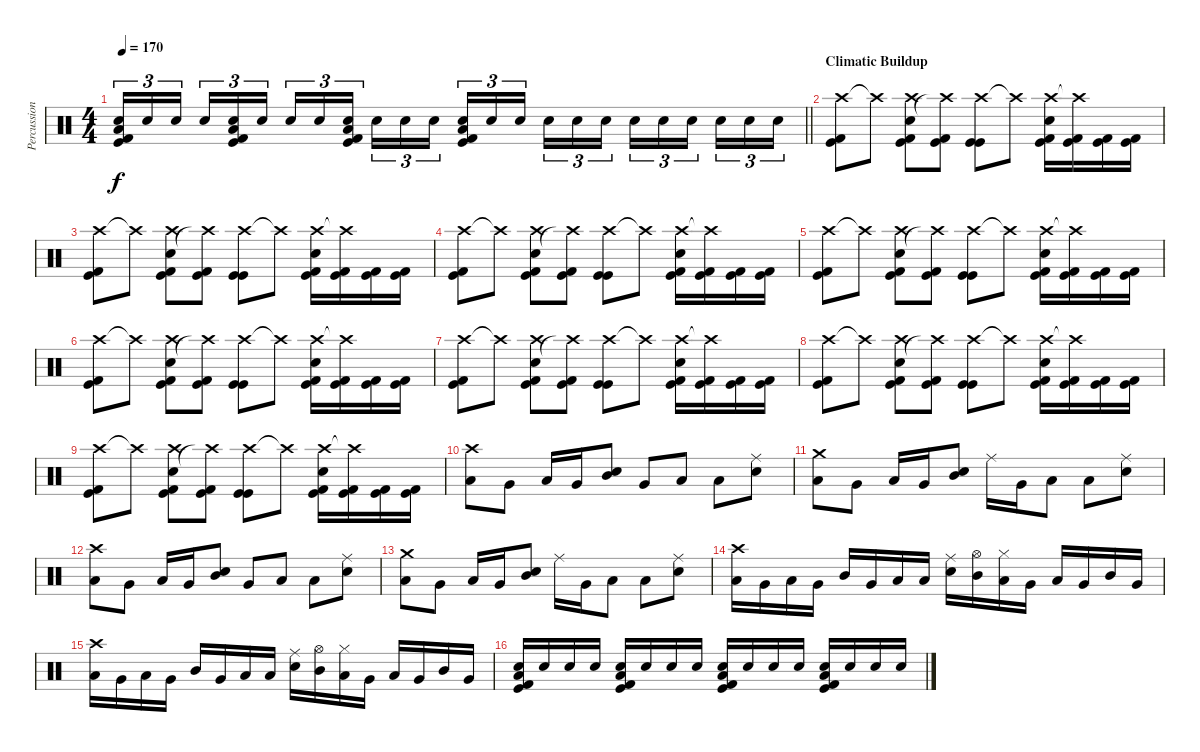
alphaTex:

\track ("Percussion" "Percussion") {instrument percussion}
\staff {score}
\articulation defaults
\ts (4 4)
\tempo 170
\clef neutral
\barLineRight lightlight
\ks c
("Low Floor Tom (hit)" "Snare (hit) 2" "Kick (hit) 2" "Kick (hit)").16{tu (3 2) dy f} "Snare (hit) 2".16{tu (3 2)} "Snare (hit) 2".16{tu (3 2) beam splitsecondary} "Snare (hit) 2".16{tu (3 2)} ("Low Floor Tom (hit)" "Snare (hit) 2" "Kick (hit) 2" "Kick (hit)").16{tu (3 2)} "Snare (hit) 2".16{tu (3 2)} "Snare (hit) 2".16{tu (3 2)} "Snare (hit) 2".16{tu (3 2)} ("Low Floor Tom (hit)" "Snare (hit) 2" "Kick (hit) 2" "Kick (hit)").16{tu (3 2) beam splitsecondary} "Snare (hit) 2".16{tu (3 2)} "Snare (hit) 2".16{tu (3 2)} "Snare (hit) 2".16{tu (3 2)} ("Low Floor Tom (hit)" "Snare (hit) 2" "Kick (hit) 2" "Kick (hit)").16{tu (3 2)} "Snare (hit) 2".16{tu (3 2)} "Snare (hit) 2".16{tu (3 2) beam splitsecondary} "Snare (hit) 2".16{tu (3 2)} "Snare (hit) 2".16{tu (3 2)} "Snare (hit) 2".16{tu (3 2)} "Snare (hit) 2".16{tu (3 2)} "Snare (hit) 2".16{tu (3 2)} "Snare (hit) 2".16{tu (3 2) beam splitsecondary} "Snare (hit) 2".16{tu (3 2)} "Snare (hit) 2".16{tu (3 2)} "Snare (hit) 2".16{tu (3 2)} |
\section ("" "Climatic Buildup")
("Crash high (hit)" "Kick (hit) 2" "Kick (hit)").8 "Crash high (hit)"{t}.8 ("Electric Snare (hit)" "Crash high (hit)" "Kick (hit) 2" "Kick (hit)").8 ("Crash high (hit)"{t} "Kick (hit) 2" "Kick (hit)").8 ("Crash high (hit)" "Kick (hit)" "Kick (hit)").8 "Crash high (hit)"{t}.8 ("Crash high (hit)" "Electric Snare (hit)" "Kick (hit) 2" "Kick (hit)").16 ("Crash high (hit)"{t} "Kick (hit) 2" "Kick (hit)").16 ("Kick (hit) 2" "Kick (hit)").16 ("Kick (hit) 2" "Kick (hit)").16 |
("Crash high (hit)" "Kick (hit) 2" "Kick (hit)").8 "Crash high (hit)"{t}.8 ("Electric Snare (hit)" "Crash high (hit)" "Kick (hit) 2" "Kick (hit)").8 ("Crash high (hit)"{t} "Kick (hit) 2" "Kick (hit)").8 ("Crash high (hit)" "Kick (hit)" "Kick (hit)").8 "Crash high (hit)"{t}.8 ("Crash high (hit)" "Electric Snare (hit)" "Kick (hit) 2" "Kick (hit)").16 ("Crash high (hit)"{t} "Kick (hit) 2" "Kick (hit)").16 ("Kick (hit) 2" "Kick (hit)").16 ("Kick (hit) 2" "Kick (hit)").16 |
("Crash high (hit)" "Kick (hit) 2" "Kick (hit)").8 "Crash high (hit)"{t}.8 ("Electric Snare (hit)" "Crash high (hit)" "Kick (hit) 2" "Kick (hit)").8 ("Crash high (hit)"{t} "Kick (hit) 2" "Kick (hit)").8 ("Crash high (hit)" "Kick (hit)" "Kick (hit)").8 "Crash high (hit)"{t}.8 ("Crash high (hit)" "Electric Snare (hit)" "Kick (hit) 2" "Kick (hit)").16 ("Crash high (hit)"{t} "Kick (hit) 2" "Kick (hit)").16 ("Kick (hit) 2" "Kick (hit)").16 ("Kick (hit) 2" "Kick (hit)").16 |
("Crash high (hit)" "Kick (hit) 2" "Kick (hit)").8 "Crash high (hit)"{t}.8 ("Electric Snare (hit)" "Crash high (hit)" "Kick (hit) 2" "Kick (hit)").8 ("Crash high (hit)"{t} "Kick (hit) 2" "Kick (hit)").8 ("Crash high (hit)" "Kick (hit)" "Kick (hit)").8 "Crash high (hit)"{t}.8 ("Crash high (hit)" "Electric Snare (hit)" "Kick (hit) 2" "Kick (hit)").16 ("Crash high (hit)"{t} "Kick (hit) 2" "Kick (hit)").16 ("Kick (hit) 2" "Kick (hit)").16 ("Kick (hit) 2" "Kick (hit)").16 |
("Crash high (hit)" "Kick (hit) 2" "Kick (hit)").8 "Crash high (hit)"{t}.8 ("Electric Snare (hit)" "Crash high (hit)" "Kick (hit) 2" "Kick (hit)").8 ("Crash high (hit)"{t} "Kick (hit) 2" "Kick (hit)").8 ("Crash high (hit)" "Kick (hit)" "Kick (hit)").8 "Crash high (hit)"{t}.8 ("Crash high (hit)" "Electric Snare (hit)" "Kick (hit) 2" "Kick (hit)").16 ("Crash high (hit)"{t} "Kick (hit) 2" "Kick (hit)").16 ("Kick (hit) 2" "Kick (hit)").16 ("Kick (hit) 2" "Kick (hit)").16 |
("Crash high (hit)" "Kick (hit) 2" "Kick (hit)").8 "Crash high (hit)"{t}.8 ("Electric Snare (hit)" "Crash high (hit)" "Kick (hit) 2" "Kick (hit)").8 ("Crash high (hit)"{t} "Kick (hit) 2" "Kick (hit)").8 ("Crash high (hit)" "Kick (hit)" "Kick (hit)").8 "Crash high (hit)"{t}.8 ("Crash high (hit)" "Electric Snare (hit)" "Kick (hit) 2" "Kick (hit)").16 ("Crash high (hit)"{t} "Kick (hit) 2" "Kick (hit)").16 ("Kick (hit) 2" "Kick (hit)").16 ("Kick (hit) 2" "Kick (hit)").16 |
("Crash high (hit)" "Kick (hit) 2" "Kick (hit)").8 "Crash high (hit)"{t}.8 ("Electric Snare (hit)" "Crash high (hit)" "Kick (hit) 2" "Kick (hit)").8 ("Crash high (hit)"{t} "Kick (hit) 2" "Kick (hit)").8 ("Crash high (hit)" "Kick (hit)" "Kick (hit)").8 "Crash high (hit)"{t}.8 ("Crash high (hit)" "Electric Snare (hit)" "Kick (hit) 2" "Kick (hit)").16 ("Crash high (hit)"{t} "Kick (hit) 2" "Kick (hit)").16 ("Kick (hit) 2" "Kick (hit)").16 ("Kick (hit) 2" "Kick (hit)").16 |
("Crash high (hit)" "Kick (hit) 2" "Kick (hit)").8 "Crash high (hit)"{t}.8 ("Electric Snare (hit)" "Crash high (hit)" "Kick (hit) 2" "Kick (hit)").8 ("Crash high (hit)"{t} "Kick (hit) 2" "Kick (hit)").8 ("Crash high (hit)" "Kick (hit)" "Kick (hit)").8 "Crash high (hit)"{t}.8 ("Crash high (hit)" "Electric Snare (hit)" "Kick (hit) 2" "Kick (hit)").16 ("Crash high (hit)"{t} "Kick (hit) 2" "Kick (hit)").16 ("Kick (hit) 2" "Kick (hit)").16 ("Kick (hit) 2" "Kick (hit)").16 |
("Crash high (hit)" "Low Tom (hit)").8 "Very Low Tom (hit)".8 "Low Floor Tom (hit)".16 "Very Low Tom (hit)".16 ("Electric Snare (hit)" "Mid Tom (hit)").8 "Very Low Tom (hit)".8 "Low Tom (hit)".8 "Low Floor Tom (hit)".8 ("Ride (middle)" "Snare (hit) 2").8 |
("Crash medium (hit)" "Low Tom (hit)").8 "Very Low Tom (hit)".8 "Low Floor Tom (hit)".16 "Very Low Tom (hit)".16 ("Electric Snare (hit)" "Mid Tom (hit)").8 "Ride (middle)".16 "Very Low Tom (hit)".16 "Low Tom (hit)".8 "Low Floor Tom (hit)".8 ("Ride (middle)" "Snare (hit) 2").8 |
("Crash high (hit)" "Low Tom (hit)").8 "Very Low Tom (hit)".8 "Low Floor Tom (hit)".16 "Very Low Tom (hit)".16 ("Electric Snare (hit)" "Mid Tom (hit)").8 "Very Low Tom (hit)".8 "Low Tom (hit)".8 "Low Floor Tom (hit)".8 ("Ride (middle)" "Snare (hit) 2").8 |
("Crash medium (hit)" "Low Tom (hit)").8 "Very Low Tom (hit)".8 "Low Floor Tom (hit)".16 "Very Low Tom (hit)".16 ("Electric Snare (hit)" "Mid Tom (hit)").8 "Ride (middle)".16 "Very Low Tom (hit)".16 "Low Tom (hit)".8 "Low Floor Tom (hit)".8 ("Ride (middle)" "Snare (hit) 2").8 |
("Crash high (hit)" "Low Tom (hit)").16 "Very Low Tom (hit)".16 "Low Floor Tom (hit)".16 "Very Low Tom (hit)".16 "Mid Tom (hit)".16 "Very Low Tom (hit)".16 "Low Tom (hit)".16 "Low Floor Tom (hit)".16 ("Ride (middle)" "Snare (hit) 2").16 ("Hi-Hat (open)" "Mid Tom (hit)").16 ("Hi-Hat (closed)" "Low Tom (hit)").16 "Very Low Tom (hit)".16 "Low Floor Tom (hit)".16 "Very Low Tom (hit)".16 "Mid Tom (hit)".16 "Very Low Tom (hit)".16 |
("Crash high (hit)" "Low Tom (hit)").16 "Very Low Tom (hit)".16 "Low Floor Tom (hit)".16 "Very Low Tom (hit)".16 "Mid Tom (hit)".16 "Very Low Tom (hit)".16 "Low Tom (hit)".16 "Low Floor Tom (hit)".16 ("Ride (middle)" "Snare (hit) 2").16 ("Hi-Hat (open)" "Mid Tom (hit)").16 ("Hi-Hat (closed)" "Low Tom (hit)").16 "Very Low Tom (hit)".16 "Low Floor Tom (hit)".16 "Very Low Tom (hit)".16 "Mid Tom (hit)".16 "Very Low Tom (hit)".16 |
("Low Floor Tom (hit)" "Snare (hit) 2" "Kick (hit) 2" "Kick (hit)").16 "Snare (hit) 2".16 "Snare (hit) 2".16 "Snare (hit) 2".16 ("Low Floor Tom (hit)" "Snare (hit) 2" "Kick (hit) 2" "Kick (hit)").16 "Snare (hit) 2".16 "Snare (hit) 2".16 "Snare (hit) 2".16 ("Low Floor Tom (hit)" "Snare (hit) 2" "Kick (hit) 2" "Kick (hit)").16 "Snare (hit) 2".16 "Snare (hit) 2".16 "Snare (hit) 2".16 ("Low Floor Tom (hit)" "Snare (hit) 2" "Kick (hit) 2" "Kick (hit)").16 "Snare (hit) 2".16 "Snare (hit) 2".16 "Snare (hit) 2".16
